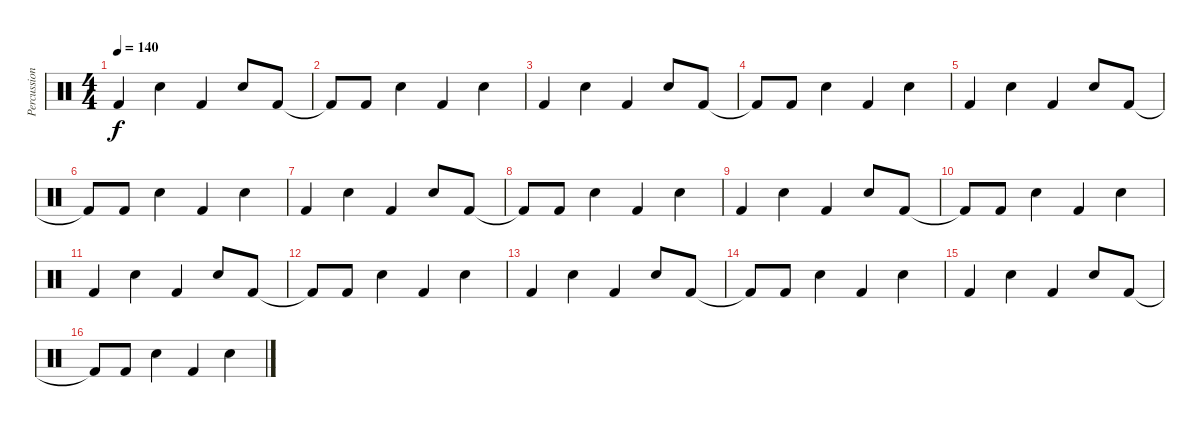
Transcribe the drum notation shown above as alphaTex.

\track ("Percussion" "Percussion") {instrument percussion}
\staff {score}
\articulation defaults
\ts (4 4)
\tempo 140
\clef neutral
\ks c "Kick (hit) 2".4{dy f} "Electric Snare (hit)".4 "Kick (hit) 2".4 "Electric Snare (hit)".8 "Kick (hit) 2".8
|
"Kick (hit) 2"{t}.8 "Kick (hit) 2".8 "Electric Snare (hit)".4 "Kick (hit) 2".4 "Electric Snare (hit)".4 |
"Kick (hit) 2".4 "Electric Snare (hit)".4 "Kick (hit) 2".4 "Electric Snare (hit)".8 "Kick (hit) 2".8 |
"Kick (hit) 2"{t}.8 "Kick (hit) 2".8 "Electric Snare (hit)".4 "Kick (hit) 2".4 "Electric Snare (hit)".4 |
"Kick (hit) 2".4 "Electric Snare (hit)".4 "Kick (hit) 2".4 "Electric Snare (hit)".8 "Kick (hit) 2".8 |
"Kick (hit) 2"{t}.8 "Kick (hit) 2".8 "Electric Snare (hit)".4 "Kick (hit) 2".4 "Electric Snare (hit)".4 |
"Kick (hit) 2".4 "Electric Snare (hit)".4 "Kick (hit) 2".4 "Electric Snare (hit)".8 "Kick (hit) 2".8 |
"Kick (hit) 2"{t}.8 "Kick (hit) 2".8 "Electric Snare (hit)".4 "Kick (hit) 2".4 "Electric Snare (hit)".4 |
"Kick (hit) 2".4 "Electric Snare (hit)".4 "Kick (hit) 2".4 "Electric Snare (hit)".8 "Kick (hit) 2".8 |
"Kick (hit) 2"{t}.8 "Kick (hit) 2".8 "Electric Snare (hit)".4 "Kick (hit) 2".4 "Electric Snare (hit)".4 |
"Kick (hit) 2".4 "Electric Snare (hit)".4 "Kick (hit) 2".4 "Electric Snare (hit)".8 "Kick (hit) 2".8 |
"Kick (hit) 2"{t}.8 "Kick (hit) 2".8 "Electric Snare (hit)".4 "Kick (hit) 2".4 "Electric Snare (hit)".4 |
"Kick (hit) 2".4 "Electric Snare (hit)".4 "Kick (hit) 2".4 "Electric Snare (hit)".8 "Kick (hit) 2".8 |
"Kick (hit) 2"{t}.8 "Kick (hit) 2".8 "Electric Snare (hit)".4 "Kick (hit) 2".4 "Electric Snare (hit)".4 |
"Kick (hit) 2".4 "Electric Snare (hit)".4 "Kick (hit) 2".4 "Electric Snare (hit)".8 "Kick (hit) 2".8 |
"Kick (hit) 2"{t}.8 "Kick (hit) 2".8 "Electric Snare (hit)".4 "Kick (hit) 2".4 "Electric Snare (hit)".4
